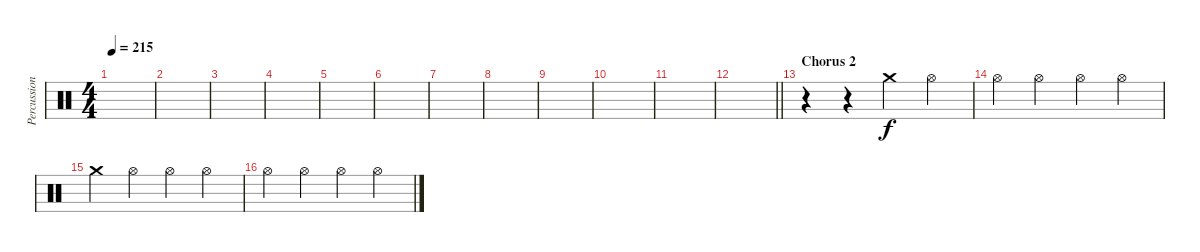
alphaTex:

\track ("Percussion" "Percussion") {instrument percussion}
\staff {score}
\articulation defaults
\ts (4 4)
\tempo 215
\clef neutral
\ks c
|
|
|
|
|
|
|
|
|
|
|
\barLineRight lightlight
|
\section ("" "Chorus 2")
r.4 r.4 "Crash medium (hit)".4 "Hi-Hat (open)".4 |
"Hi-Hat (open)".4 "Hi-Hat (open)".4 "Hi-Hat (open)".4 "Hi-Hat (open)".4 |
"Crash medium (hit)".4 "Hi-Hat (open)".4 "Hi-Hat (open)".4 "Hi-Hat (open)".4 |
"Hi-Hat (open)".4 "Hi-Hat (open)".4 "Hi-Hat (open)".4 "Hi-Hat (open)".4
